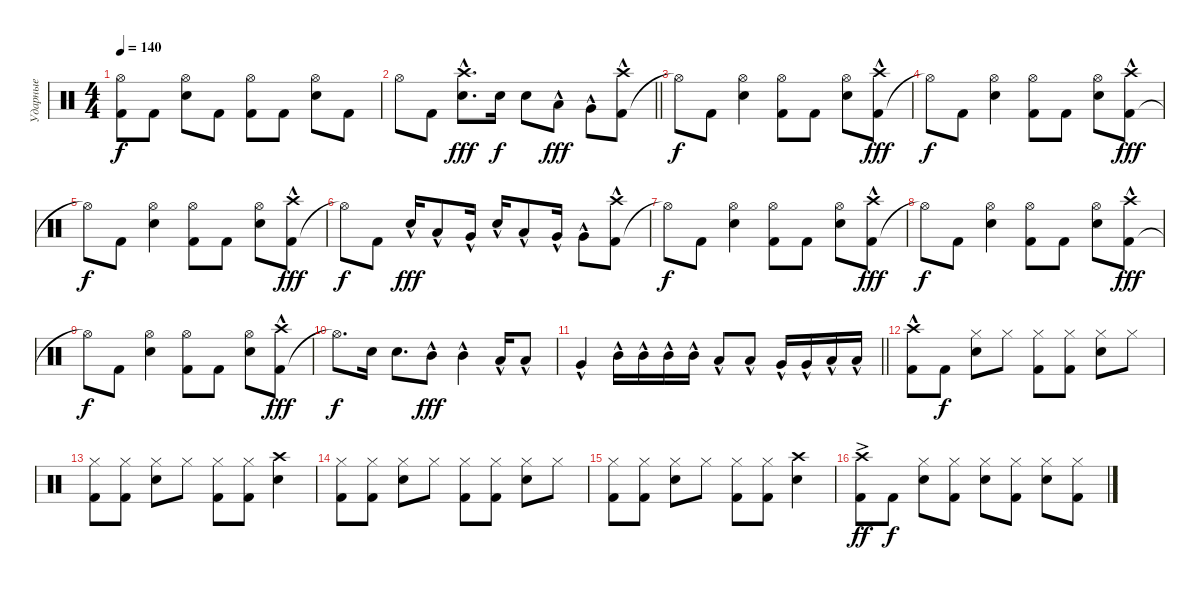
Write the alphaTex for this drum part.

\track ("Ударные" "Ударные") {instrument percussion}
\staff {score}
\articulation defaults
\ts (4 4)
\tempo 140
\clef neutral
\ks c
("Kick (hit) 2" "Hi-Hat (open)").8{dy f} "Kick (hit) 2".8 ("Snare (hit) 2" "Hi-Hat (open)").8 "Kick (hit) 2".8 ("Kick (hit) 2" "Hi-Hat (open)").8 "Kick (hit) 2".8 ("Snare (hit) 2" "Hi-Hat (open)").8 "Kick (hit) 2".8 |
\barLineRight lightlight "Hi-Hat (open)".8 "Kick (hit) 2".8
("Snare (hit) 2" "Crash high (hit)"{hac}).8{d dy fff} "Snare (hit) 2".16{dy f} "Snare (hit) 2".8 "Low Tom (hit)"{hac}.8{dy fff} "Very Low Tom (hit)"{hac}.8 ("Kick (hit) 2" "Crash high (hit)"{hac}).8 |
"Hi-Hat (open)"{t}.8{dy f} "Kick (hit) 2".8 ("Snare (hit) 2" "Hi-Hat (open)").4 ("Kick (hit) 2" "Hi-Hat (open)").8 "Kick (hit) 2".8 ("Snare (hit) 2" "Hi-Hat (open)").8 ("Kick (hit) 2" "Crash high (hit)"{hac}).8{dy fff} |
"Hi-Hat (open)"{t}.8{dy f} "Kick (hit) 2".8 ("Snare (hit) 2" "Hi-Hat (open)").4 ("Kick (hit) 2" "Hi-Hat (open)").8 "Kick (hit) 2".8 ("Snare (hit) 2" "Hi-Hat (open)").8 ("Kick (hit) 2" "Crash high (hit)"{hac}).8{dy fff} |
"Hi-Hat (open)"{t}.8{dy f} "Kick (hit) 2".8 ("Snare (hit) 2" "Hi-Hat (open)").4 ("Kick (hit) 2" "Hi-Hat (open)").8 "Kick (hit) 2".8 ("Snare (hit) 2" "Hi-Hat (open)").8 ("Kick (hit) 2" "Crash high (hit)"{hac}).8{dy fff} |
"Hi-Hat (open)"{t}.8{dy f} "Kick (hit) 2".8 "Snare (hit) 2"{hac}.16{dy fff} "Low Tom (hit)"{hac}.8 "Very Low Tom (hit)"{hac}.16 "Snare (hit) 2"{hac}.16 "Low Tom (hit)"{hac}.8 "Very Low Tom (hit)"{hac}.16 "Very Low Tom (hit)"{hac}.8 ("Kick (hit) 2" "Crash high (hit)"{hac}).8 |
"Hi-Hat (open)"{t}.8{dy f} "Kick (hit) 2".8 ("Snare (hit) 2" "Hi-Hat (open)").4 ("Kick (hit) 2" "Hi-Hat (open)").8 "Kick (hit) 2".8 ("Snare (hit) 2" "Hi-Hat (open)").8 ("Kick (hit) 2" "Crash high (hit)"{hac}).8{dy fff} |
"Hi-Hat (open)"{t}.8{dy f} "Kick (hit) 2".8 ("Snare (hit) 2" "Hi-Hat (open)").4 ("Kick (hit) 2" "Hi-Hat (open)").8 "Kick (hit) 2".8 ("Snare (hit) 2" "Hi-Hat (open)").8 ("Kick (hit) 2" "Crash high (hit)"{hac}).8{dy fff} |
"Hi-Hat (open)"{t}.8{dy f} "Kick (hit) 2".8 ("Snare (hit) 2" "Hi-Hat (open)").4 ("Kick (hit) 2" "Hi-Hat (open)").8 "Kick (hit) 2".8 ("Snare (hit) 2" "Hi-Hat (open)").8 ("Kick (hit) 2" "Crash high (hit)"{hac}).8{dy fff} |
"Hi-Hat (open)"{t}.8{d dy f} "Snare (hit) 2".16 "Snare (hit) 2".8{d} "Mid Tom (hit)"{hac}.8{dy fff} "Mid Tom (hit)"{hac}.4 "Low Tom (hit)"{hac}.16 "Low Tom (hit)"{hac}.8 |
\barLineRight lightlight "Very Low Tom (hit)"{hac}.4 "Mid Tom (hit)"{hac}.16 "Mid Tom (hit)"{hac}.16 "Mid Tom (hit)"{hac}.16 "Mid Tom (hit)"{hac}.16 "Low Tom (hit)"{hac}.8 "Low Tom (hit)"{hac}.8 "Very Low Tom (hit)"{hac}.16 "Very Low Tom (hit)"{hac}.16 "Low Floor Tom (hit)"{hac}.16 "Low Floor Tom (hit)"{hac}.16
|
("Kick (hit) 2" "Crash high (hit)"{hac}).8 "Kick (hit) 2".8{dy f} ("Snare (hit) 2" "Hi-Hat (closed)").8 "Hi-Hat (closed)".8 ("Kick (hit) 2" "Hi-Hat (closed)").8 ("Kick (hit) 2" "Hi-Hat (closed)").8 ("Snare (hit) 2" "Hi-Hat (closed)").8 "Hi-Hat (closed)".8 |
("Kick (hit) 2" "Hi-Hat (closed)").8 ("Kick (hit) 2" "Hi-Hat (closed)").8 ("Snare (hit) 2" "Hi-Hat (closed)").8 "Hi-Hat (closed)".8 ("Kick (hit) 2" "Hi-Hat (closed)").8 ("Kick (hit) 2" "Hi-Hat (closed)").8 ("Snare (hit) 2" "Crash high (hit)").4 |
("Kick (hit) 2" "Hi-Hat (closed)").8 ("Kick (hit) 2" "Hi-Hat (closed)").8 ("Snare (hit) 2" "Hi-Hat (closed)").8 "Hi-Hat (closed)".8 ("Kick (hit) 2" "Hi-Hat (closed)").8 ("Kick (hit) 2" "Hi-Hat (closed)").8 ("Snare (hit) 2" "Hi-Hat (closed)").8 "Hi-Hat (closed)".8 |
("Kick (hit) 2" "Hi-Hat (closed)").8 ("Kick (hit) 2" "Hi-Hat (closed)").8 ("Snare (hit) 2" "Hi-Hat (closed)").8 "Hi-Hat (closed)".8 ("Kick (hit) 2" "Hi-Hat (closed)").8 ("Kick (hit) 2" "Hi-Hat (closed)").8 ("Snare (hit) 2" "Crash high (hit)").4 |
("Kick (hit) 2" "Crash high (hit)"{ac}).8{dy ff} "Kick (hit) 2".8{dy f} ("Snare (hit) 2" "Hi-Hat (closed)").8 ("Kick (hit) 2" "Hi-Hat (closed)").8 ("Snare (hit) 2" "Hi-Hat (closed)").8 ("Kick (hit) 2" "Hi-Hat (closed)").8 ("Snare (hit) 2" "Hi-Hat (closed)").8 ("Kick (hit) 2" "Hi-Hat (closed)").8
